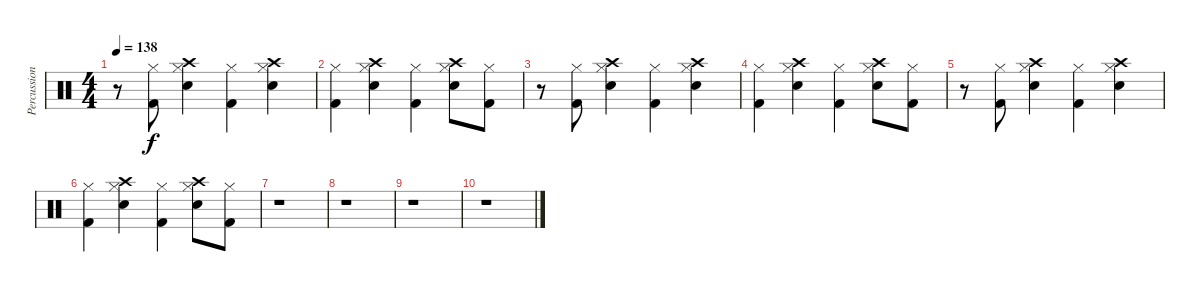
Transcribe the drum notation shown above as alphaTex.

\track ("Percussion" "Percussion") {instrument percussion}
\staff {score}
\articulation defaults
\ts (4 4)
\tempo 138
\clef neutral
\ks c
r.8{dy f} ("Hi-Hat (closed)" "Kick (hit) 2").8 ("Hi-Hat (closed)" "Crash high (hit)" "Electric Snare (hit)").4 ("Hi-Hat (closed)" "Kick (hit) 2").4 ("Hi-Hat (closed)" "Crash high (hit)" "Electric Snare (hit)").4 |
("Hi-Hat (closed)" "Kick (hit) 2").4 ("Hi-Hat (closed)" "Crash high (hit)" "Electric Snare (hit)").4 ("Hi-Hat (closed)" "Kick (hit) 2").4 ("Hi-Hat (closed)" "Crash high (hit)" "Electric Snare (hit)").8 ("Hi-Hat (closed)" "Kick (hit) 2").8 |
r.8 ("Hi-Hat (closed)" "Kick (hit) 2").8 ("Hi-Hat (closed)" "Crash high (hit)" "Electric Snare (hit)").4 ("Hi-Hat (closed)" "Kick (hit) 2").4 ("Hi-Hat (closed)" "Crash high (hit)" "Electric Snare (hit)").4 |
("Hi-Hat (closed)" "Kick (hit) 2").4 ("Hi-Hat (closed)" "Crash high (hit)" "Electric Snare (hit)").4 ("Hi-Hat (closed)" "Kick (hit) 2").4 ("Hi-Hat (closed)" "Crash high (hit)" "Electric Snare (hit)").8 ("Hi-Hat (closed)" "Kick (hit) 2").8 |
r.8 ("Hi-Hat (closed)" "Kick (hit) 2").8 ("Hi-Hat (closed)" "Crash high (hit)" "Electric Snare (hit)").4 ("Hi-Hat (closed)" "Kick (hit) 2").4 ("Hi-Hat (closed)" "Crash high (hit)" "Electric Snare (hit)").4 |
("Hi-Hat (closed)" "Kick (hit) 2").4 ("Hi-Hat (closed)" "Crash high (hit)" "Electric Snare (hit)").4 ("Hi-Hat (closed)" "Kick (hit) 2").4 ("Hi-Hat (closed)" "Crash high (hit)" "Electric Snare (hit)").8 ("Hi-Hat (closed)" "Kick (hit) 2").8 |
r.1 |
r.1 |
r.1 |
r.1
